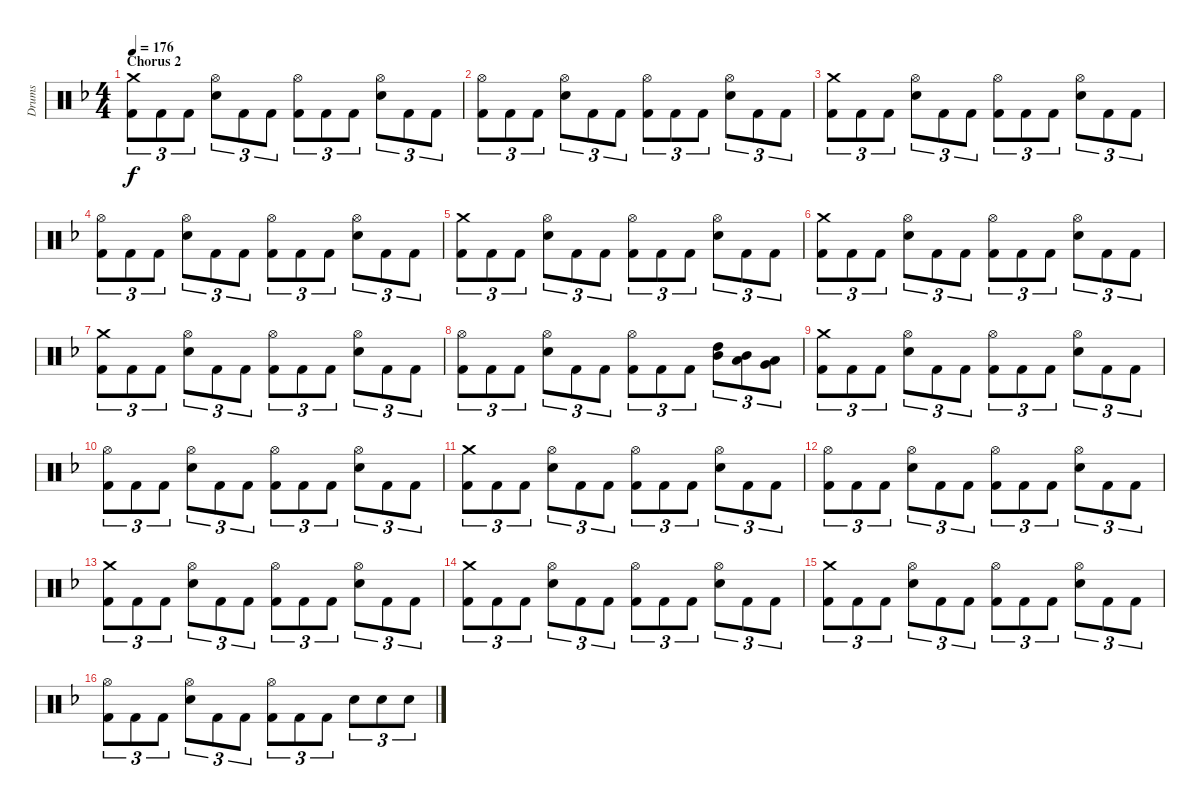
\track ("Drums" "Drums") {instrument percussion}
\staff {score}
\articulation defaults
\ts (4 4)
\section ("" "Chorus 2")
\tempo 176
\clef neutral
\ks f
("Crash medium (hit)" "Kick (hit) 2").8{tu (3 2) dy f} "Kick (hit) 2".8{tu (3 2)} "Kick (hit) 2".8{tu (3 2)} ("Hi-Hat (open)" "Snare (hit) 2").8{tu (3 2)} "Kick (hit) 2".8{tu (3 2)} "Kick (hit) 2".8{tu (3 2)} ("Hi-Hat (open)" "Kick (hit) 2").8{tu (3 2)} "Kick (hit) 2".8{tu (3 2)} "Kick (hit) 2".8{tu (3 2)} ("Hi-Hat (open)" "Snare (hit) 2").8{tu (3 2)} "Kick (hit) 2".8{tu (3 2)} "Kick (hit) 2".8{tu (3 2)} |
("Hi-Hat (open)" "Kick (hit) 2").8{tu (3 2)} "Kick (hit) 2".8{tu (3 2)} "Kick (hit) 2".8{tu (3 2)} ("Hi-Hat (open)" "Snare (hit) 2").8{tu (3 2)} "Kick (hit) 2".8{tu (3 2)} "Kick (hit) 2".8{tu (3 2)} ("Hi-Hat (open)" "Kick (hit) 2").8{tu (3 2)} "Kick (hit) 2".8{tu (3 2)} "Kick (hit) 2".8{tu (3 2)} ("Hi-Hat (open)" "Snare (hit) 2").8{tu (3 2)} "Kick (hit) 2".8{tu (3 2)} "Kick (hit) 2".8{tu (3 2)} |
("Crash medium (hit)" "Kick (hit) 2").8{tu (3 2)} "Kick (hit) 2".8{tu (3 2)} "Kick (hit) 2".8{tu (3 2)} ("Hi-Hat (open)" "Snare (hit) 2").8{tu (3 2)} "Kick (hit) 2".8{tu (3 2)} "Kick (hit) 2".8{tu (3 2)} ("Hi-Hat (open)" "Kick (hit) 2").8{tu (3 2)} "Kick (hit) 2".8{tu (3 2)} "Kick (hit) 2".8{tu (3 2)} ("Hi-Hat (open)" "Snare (hit) 2").8{tu (3 2)} "Kick (hit) 2".8{tu (3 2)} "Kick (hit) 2".8{tu (3 2)} |
("Hi-Hat (open)" "Kick (hit) 2").8{tu (3 2)} "Kick (hit) 2".8{tu (3 2)} "Kick (hit) 2".8{tu (3 2)} ("Hi-Hat (open)" "Snare (hit) 2").8{tu (3 2)} "Kick (hit) 2".8{tu (3 2)} "Kick (hit) 2".8{tu (3 2)} ("Hi-Hat (open)" "Kick (hit) 2").8{tu (3 2)} "Kick (hit) 2".8{tu (3 2)} "Kick (hit) 2".8{tu (3 2)} ("Hi-Hat (open)" "Snare (hit) 2").8{tu (3 2)} "Kick (hit) 2".8{tu (3 2)} "Kick (hit) 2".8{tu (3 2)} |
("Crash medium (hit)" "Kick (hit) 2").8{tu (3 2)} "Kick (hit) 2".8{tu (3 2)} "Kick (hit) 2".8{tu (3 2)} ("Hi-Hat (open)" "Snare (hit) 2").8{tu (3 2)} "Kick (hit) 2".8{tu (3 2)} "Kick (hit) 2".8{tu (3 2)} ("Hi-Hat (open)" "Kick (hit) 2").8{tu (3 2)} "Kick (hit) 2".8{tu (3 2)} "Kick (hit) 2".8{tu (3 2)} ("Hi-Hat (open)" "Snare (hit) 2").8{tu (3 2)} "Kick (hit) 2".8{tu (3 2)} "Kick (hit) 2".8{tu (3 2)} |
("Crash medium (hit)" "Kick (hit) 2").8{tu (3 2)} "Kick (hit) 2".8{tu (3 2)} "Kick (hit) 2".8{tu (3 2)} ("Hi-Hat (open)" "Snare (hit) 2").8{tu (3 2)} "Kick (hit) 2".8{tu (3 2)} "Kick (hit) 2".8{tu (3 2)} ("Hi-Hat (open)" "Kick (hit) 2").8{tu (3 2)} "Kick (hit) 2".8{tu (3 2)} "Kick (hit) 2".8{tu (3 2)} ("Hi-Hat (open)" "Snare (hit) 2").8{tu (3 2)} "Kick (hit) 2".8{tu (3 2)} "Kick (hit) 2".8{tu (3 2)} |
("Crash medium (hit)" "Kick (hit) 2").8{tu (3 2)} "Kick (hit) 2".8{tu (3 2)} "Kick (hit) 2".8{tu (3 2)} ("Hi-Hat (open)" "Snare (hit) 2").8{tu (3 2)} "Kick (hit) 2".8{tu (3 2)} "Kick (hit) 2".8{tu (3 2)} ("Hi-Hat (open)" "Kick (hit) 2").8{tu (3 2)} "Kick (hit) 2".8{tu (3 2)} "Kick (hit) 2".8{tu (3 2)} ("Hi-Hat (open)" "Snare (hit) 2").8{tu (3 2)} "Kick (hit) 2".8{tu (3 2)} "Kick (hit) 2".8{tu (3 2)} |
("Hi-Hat (open)" "Kick (hit) 2").8{tu (3 2)} "Kick (hit) 2".8{tu (3 2)} "Kick (hit) 2".8{tu (3 2)} ("Hi-Hat (open)" "Snare (hit) 2").8{tu (3 2)} "Kick (hit) 2".8{tu (3 2)} "Kick (hit) 2".8{tu (3 2)} ("Hi-Hat (open)" "Kick (hit) 2").8{tu (3 2)} "Kick (hit) 2".8{tu (3 2)} "Kick (hit) 2".8{tu (3 2)} ("High Tom (hit)" "Mid Tom (hit)").8{tu (3 2)} ("Mid Tom (hit)" "Low Tom (hit)").8{tu (3 2)} ("Low Tom (hit)" "Very Low Tom (hit)").8{tu (3 2)} |
("Crash medium (hit)" "Kick (hit) 2").8{tu (3 2)} "Kick (hit) 2".8{tu (3 2)} "Kick (hit) 2".8{tu (3 2)} ("Hi-Hat (open)" "Snare (hit) 2").8{tu (3 2)} "Kick (hit) 2".8{tu (3 2)} "Kick (hit) 2".8{tu (3 2)} ("Hi-Hat (open)" "Kick (hit) 2").8{tu (3 2)} "Kick (hit) 2".8{tu (3 2)} "Kick (hit) 2".8{tu (3 2)} ("Hi-Hat (open)" "Snare (hit) 2").8{tu (3 2)} "Kick (hit) 2".8{tu (3 2)} "Kick (hit) 2".8{tu (3 2)} |
("Hi-Hat (open)" "Kick (hit) 2").8{tu (3 2)} "Kick (hit) 2".8{tu (3 2)} "Kick (hit) 2".8{tu (3 2)} ("Hi-Hat (open)" "Snare (hit) 2").8{tu (3 2)} "Kick (hit) 2".8{tu (3 2)} "Kick (hit) 2".8{tu (3 2)} ("Hi-Hat (open)" "Kick (hit) 2").8{tu (3 2)} "Kick (hit) 2".8{tu (3 2)} "Kick (hit) 2".8{tu (3 2)} ("Hi-Hat (open)" "Snare (hit) 2").8{tu (3 2)} "Kick (hit) 2".8{tu (3 2)} "Kick (hit) 2".8{tu (3 2)} |
("Crash medium (hit)" "Kick (hit) 2").8{tu (3 2)} "Kick (hit) 2".8{tu (3 2)} "Kick (hit) 2".8{tu (3 2)} ("Hi-Hat (open)" "Snare (hit) 2").8{tu (3 2)} "Kick (hit) 2".8{tu (3 2)} "Kick (hit) 2".8{tu (3 2)} ("Hi-Hat (open)" "Kick (hit) 2").8{tu (3 2)} "Kick (hit) 2".8{tu (3 2)} "Kick (hit) 2".8{tu (3 2)} ("Hi-Hat (open)" "Snare (hit) 2").8{tu (3 2)} "Kick (hit) 2".8{tu (3 2)} "Kick (hit) 2".8{tu (3 2)} |
("Hi-Hat (open)" "Kick (hit) 2").8{tu (3 2)} "Kick (hit) 2".8{tu (3 2)} "Kick (hit) 2".8{tu (3 2)} ("Hi-Hat (open)" "Snare (hit) 2").8{tu (3 2)} "Kick (hit) 2".8{tu (3 2)} "Kick (hit) 2".8{tu (3 2)} ("Hi-Hat (open)" "Kick (hit) 2").8{tu (3 2)} "Kick (hit) 2".8{tu (3 2)} "Kick (hit) 2".8{tu (3 2)} ("Hi-Hat (open)" "Snare (hit) 2").8{tu (3 2)} "Kick (hit) 2".8{tu (3 2)} "Kick (hit) 2".8{tu (3 2)} |
("Crash medium (hit)" "Kick (hit) 2").8{tu (3 2)} "Kick (hit) 2".8{tu (3 2)} "Kick (hit) 2".8{tu (3 2)} ("Hi-Hat (open)" "Snare (hit) 2").8{tu (3 2)} "Kick (hit) 2".8{tu (3 2)} "Kick (hit) 2".8{tu (3 2)} ("Hi-Hat (open)" "Kick (hit) 2").8{tu (3 2)} "Kick (hit) 2".8{tu (3 2)} "Kick (hit) 2".8{tu (3 2)} ("Hi-Hat (open)" "Snare (hit) 2").8{tu (3 2)} "Kick (hit) 2".8{tu (3 2)} "Kick (hit) 2".8{tu (3 2)} |
("Crash medium (hit)" "Kick (hit) 2").8{tu (3 2)} "Kick (hit) 2".8{tu (3 2)} "Kick (hit) 2".8{tu (3 2)} ("Hi-Hat (open)" "Snare (hit) 2").8{tu (3 2)} "Kick (hit) 2".8{tu (3 2)} "Kick (hit) 2".8{tu (3 2)} ("Hi-Hat (open)" "Kick (hit) 2").8{tu (3 2)} "Kick (hit) 2".8{tu (3 2)} "Kick (hit) 2".8{tu (3 2)} ("Hi-Hat (open)" "Snare (hit) 2").8{tu (3 2)} "Kick (hit) 2".8{tu (3 2)} "Kick (hit) 2".8{tu (3 2)} |
("Crash medium (hit)" "Kick (hit) 2").8{tu (3 2)} "Kick (hit) 2".8{tu (3 2)} "Kick (hit) 2".8{tu (3 2)} ("Hi-Hat (open)" "Snare (hit) 2").8{tu (3 2)} "Kick (hit) 2".8{tu (3 2)} "Kick (hit) 2".8{tu (3 2)} ("Hi-Hat (open)" "Kick (hit) 2").8{tu (3 2)} "Kick (hit) 2".8{tu (3 2)} "Kick (hit) 2".8{tu (3 2)} ("Hi-Hat (open)" "Snare (hit) 2").8{tu (3 2)} "Kick (hit) 2".8{tu (3 2)} "Kick (hit) 2".8{tu (3 2)} |
("Hi-Hat (open)" "Kick (hit) 2").8{tu (3 2)} "Kick (hit) 2".8{tu (3 2)} "Kick (hit) 2".8{tu (3 2)} ("Hi-Hat (open)" "Snare (hit) 2").8{tu (3 2)} "Kick (hit) 2".8{tu (3 2)} "Kick (hit) 2".8{tu (3 2)} ("Hi-Hat (open)" "Kick (hit) 2").8{tu (3 2)} "Kick (hit) 2".8{tu (3 2)} "Kick (hit) 2".8{tu (3 2)} "Snare (hit) 2".8{tu (3 2)} "Snare (hit) 2".8{tu (3 2)} "Snare (hit) 2".8{tu (3 2)}
